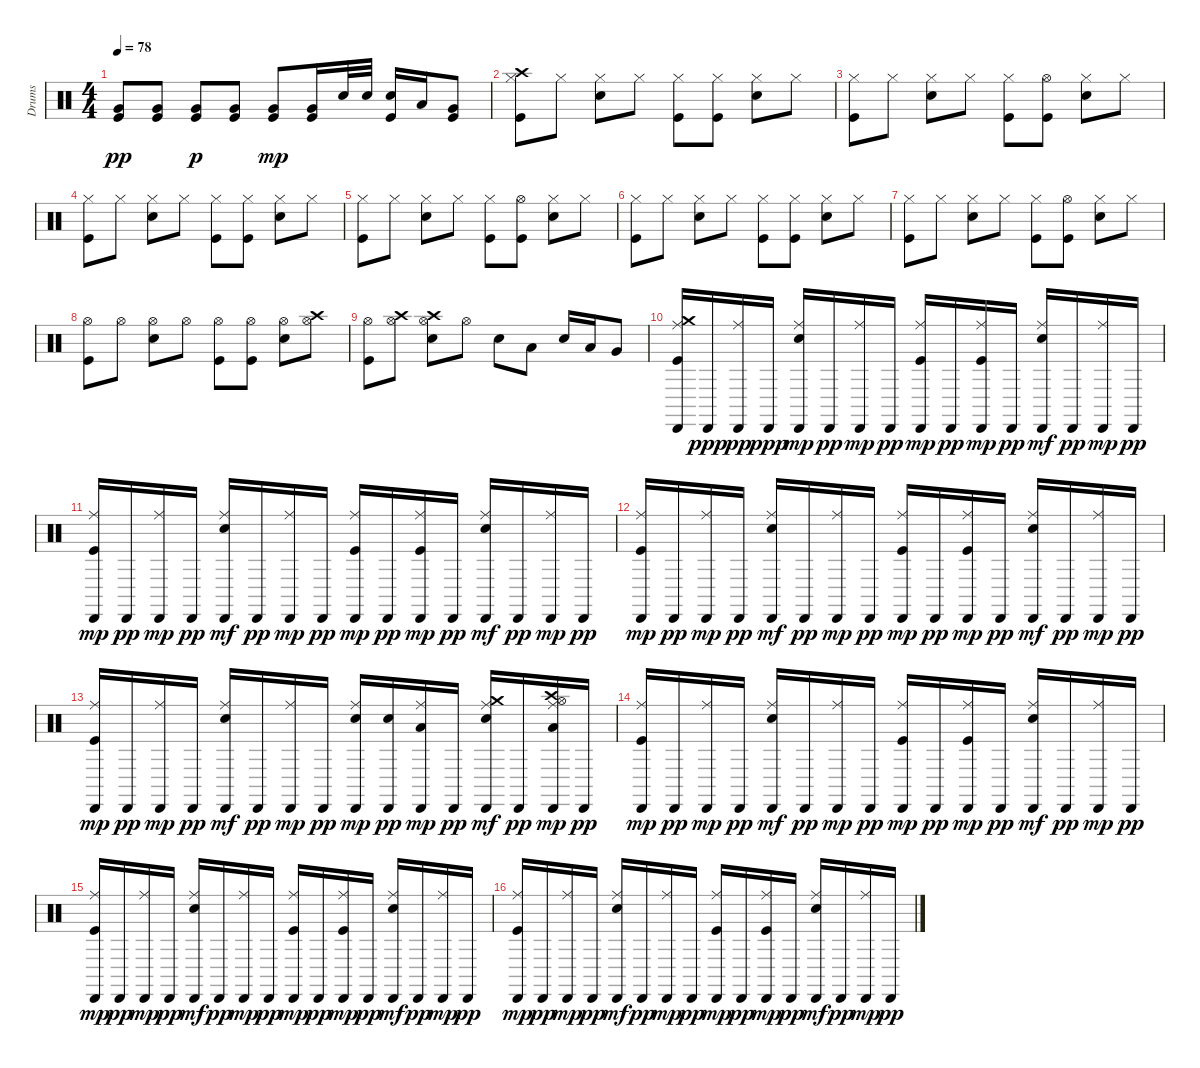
\track ("Drums" "Drums") {instrument percussion}
\staff {score}
\articulation defaults
\ts (4 4)
\tempo 78
\clef neutral
\ks c
("Kick (hit)" "Very Low Tom (hit)").8{dy pp balance 8} ("Kick (hit)" "Very Low Tom (hit)").8{balance 8} ("Kick (hit)" "Very Low Tom (hit)").8{dy p balance 8} ("Kick (hit)" "Very Low Tom (hit)").8{balance 8} ("Kick (hit)" "Very Low Tom (hit)").8{dy mp balance 8} ("Kick (hit)" "Very Low Tom (hit)").16{balance 8} "Snare (hit) 2".32 "Snare (hit) 2".32 ("Kick (hit)" "Snare (hit) 2").16{balance 8} "Low Tom (hit)".16 ("Kick (hit)" "Very Low Tom (hit)").8{balance 8} |
("Kick (hit)" "Hi-Hat (closed)" "Crash high (hit)").8{volume 12 balance 8} "Hi-Hat (closed)".8{volume 16 balance 8} ("Snare (hit) 2" "Hi-Hat (closed)").8 "Hi-Hat (closed)".8 ("Kick (hit)" "Hi-Hat (closed)").8{balance 8} ("Kick (hit)" "Hi-Hat (closed)").8{balance 8} ("Snare (hit) 2" "Hi-Hat (closed)").8 "Hi-Hat (closed)".8 |
("Kick (hit)" "Hi-Hat (closed)").8{balance 8} "Hi-Hat (closed)".8 ("Snare (hit) 2" "Hi-Hat (closed)").8 "Hi-Hat (closed)".8 ("Kick (hit)" "Hi-Hat (closed)").8{balance 8} ("Kick (hit)" "Hi-Hat (open)").8{balance 7} ("Snare (hit) 2" "Hi-Hat (closed)").8{balance 8} "Hi-Hat (closed)".8 |
("Kick (hit)" "Hi-Hat (closed)").8{balance 8} "Hi-Hat (closed)".8 ("Snare (hit) 2" "Hi-Hat (closed)").8 "Hi-Hat (closed)".8 ("Kick (hit)" "Hi-Hat (closed)").8{balance 8} ("Kick (hit)" "Hi-Hat (closed)").8{balance 8} ("Snare (hit) 2" "Hi-Hat (closed)").8 "Hi-Hat (closed)".8 |
("Kick (hit)" "Hi-Hat (closed)").8{balance 8} "Hi-Hat (closed)".8 ("Snare (hit) 2" "Hi-Hat (closed)").8 "Hi-Hat (closed)".8 ("Kick (hit)" "Hi-Hat (closed)").8{balance 8} ("Kick (hit)" "Hi-Hat (open)").8{balance 7} ("Snare (hit) 2" "Hi-Hat (closed)").8{balance 8} "Hi-Hat (closed)".8 |
("Kick (hit)" "Hi-Hat (closed)").8{balance 8} "Hi-Hat (closed)".8 ("Snare (hit) 2" "Hi-Hat (closed)").8 "Hi-Hat (closed)".8 ("Kick (hit)" "Hi-Hat (closed)").8{balance 8} ("Kick (hit)" "Hi-Hat (closed)").8{balance 8} ("Snare (hit) 2" "Hi-Hat (closed)").8 "Hi-Hat (closed)".8 |
("Kick (hit)" "Hi-Hat (closed)").8{balance 8} "Hi-Hat (closed)".8 ("Snare (hit) 2" "Hi-Hat (closed)").8 "Hi-Hat (closed)".8 ("Kick (hit)" "Hi-Hat (closed)").8{balance 8} ("Kick (hit)" "Hi-Hat (open)").8{balance 7} ("Snare (hit) 2" "Hi-Hat (closed)").8{balance 8} "Hi-Hat (closed)".8 |
("Kick (hit)" "Hi-Hat (open)").8{balance 7} "Hi-Hat (open)".8 ("Snare (hit) 2" "Hi-Hat (open)").8{balance 7} "Hi-Hat (open)".8 ("Kick (hit)" "Hi-Hat (open)").8{balance 7} ("Kick (hit)" "Hi-Hat (open)").8{balance 7} ("Snare (hit) 2" "Hi-Hat (open)").8{balance 7} ("Hi-Hat (open)" "Crash high (hit)").8{volume 12 balance 8} |
("Kick (hit)" "Hi-Hat (open)").8{volume 16 balance 7} ("Hi-Hat (open)" "Crash high (hit)").8{volume 12 balance 8} ("Snare (hit) 2" "Hi-Hat (open)" "Crash high (hit)").8{volume 12 balance 8} "Hi-Hat (open)".8{volume 16 balance 7} "Snare (hit) 2".8{balance 8} "Low Tom (hit)".8 "Snare (hit) 2".16 "Low Tom (hit)".16 "Very Low Tom (hit)".8 |
("Kick (hit)" "Crash medium (hit)" "Ride (middle)" "Cabasa (hit)").16{volume 8 balance 8} "Cabasa (hit)".16{dy ppp} ("Ride (middle)" "Cabasa (hit)").16{dy pp volume 8 balance 8} "Cabasa (hit)".16{dy ppp} ("Snare (hit) 2" "Ride (middle)" "Cabasa (hit)").16{dy mp volume 8 balance 8} "Cabasa (hit)".16{dy pp} ("Ride (middle)" "Cabasa (hit)").16{dy mp volume 8 balance 8} "Cabasa (hit)".16{dy pp} ("Kick (hit)" "Ride (middle)" "Cabasa (hit)").16{dy mp volume 8 balance 8} "Cabasa (hit)".16{dy pp} ("Kick (hit)" "Ride (middle)" "Cabasa (hit)").16{dy mp volume 8 balance 8} "Cabasa (hit)".16{dy pp} ("Snare (hit) 2" "Ride (middle)" "Cabasa (hit)").16{dy mf volume 8 balance 8} "Cabasa (hit)".16{dy pp} ("Ride (middle)" "Cabasa (hit)").16{dy mp volume 8 balance 8} "Cabasa (hit)".16{dy pp} |
("Kick (hit)" "Ride (middle)" "Cabasa (hit)").16{dy mp volume 8 balance 8} "Cabasa (hit)".16{dy pp} ("Ride (middle)" "Cabasa (hit)").16{dy mp volume 8 balance 8} "Cabasa (hit)".16{dy pp} ("Snare (hit) 2" "Ride (middle)" "Cabasa (hit)").16{dy mf volume 8 balance 8} "Cabasa (hit)".16{dy pp} ("Ride (middle)" "Cabasa (hit)").16{dy mp volume 8 balance 8} "Cabasa (hit)".16{dy pp} ("Kick (hit)" "Ride (middle)" "Cabasa (hit)").16{dy mp volume 8 balance 8} "Cabasa (hit)".16{dy pp} ("Kick (hit)" "Ride (middle)" "Cabasa (hit)").16{dy mp volume 8 balance 8} "Cabasa (hit)".16{dy pp} ("Snare (hit) 2" "Ride (middle)" "Cabasa (hit)").16{dy mf volume 8 balance 8} "Cabasa (hit)".16{dy pp} ("Ride (middle)" "Cabasa (hit)").16{dy mp volume 8 balance 8} "Cabasa (hit)".16{dy pp} |
("Kick (hit)" "Ride (middle)" "Cabasa (hit)").16{dy mp volume 8 balance 8} "Cabasa (hit)".16{dy pp} ("Ride (middle)" "Cabasa (hit)").16{dy mp volume 8 balance 8} "Cabasa (hit)".16{dy pp} ("Snare (hit) 2" "Ride (middle)" "Cabasa (hit)").16{dy mf volume 8 balance 8} "Cabasa (hit)".16{dy pp} ("Ride (middle)" "Cabasa (hit)").16{dy mp volume 8 balance 8} "Cabasa (hit)".16{dy pp} ("Kick (hit)" "Ride (middle)" "Cabasa (hit)").16{dy mp volume 8 balance 8} "Cabasa (hit)".16{dy pp} ("Kick (hit)" "Ride (middle)" "Cabasa (hit)").16{dy mp volume 8 balance 8} "Cabasa (hit)".16{dy pp} ("Snare (hit) 2" "Ride (middle)" "Cabasa (hit)").16{dy mf volume 8 balance 8} "Cabasa (hit)".16{dy pp} ("Ride (middle)" "Cabasa (hit)").16{dy mp volume 8 balance 8} "Cabasa (hit)".16{dy pp} |
("Kick (hit)" "Ride (middle)" "Cabasa (hit)").16{dy mp volume 8 balance 8} "Cabasa (hit)".16{dy pp} ("Ride (middle)" "Cabasa (hit)").16{dy mp volume 8 balance 8} "Cabasa (hit)".16{dy pp} ("Snare (hit) 2" "Ride (middle)" "Cabasa (hit)").16{dy mf volume 8 balance 8} "Cabasa (hit)".16{dy pp} ("Ride (middle)" "Cabasa (hit)").16{dy mp volume 8 balance 8} "Cabasa (hit)".16{dy pp} ("Snare (hit) 2" "Ride (middle)" "Cabasa (hit)").16{dy mp volume 8 balance 8} ("Snare (hit) 2" "Cabasa (hit)").16{dy pp volume 8} ("Low Tom (hit)" "Ride (middle)" "Cabasa (hit)").16{dy mp volume 8 balance 8} "Cabasa (hit)".16{dy pp} ("Snare (hit) 2" "Crash medium (hit)" "Ride (middle)" "Cabasa (hit)").16{dy mf volume 8 balance 8} "Cabasa (hit)".16{dy pp} ("Low Tom (hit)" "Hi-Hat (open)" "Crash high (hit)" "Ride (middle)" "Cabasa (hit)").16{dy mp volume 8 balance 8} "Cabasa (hit)".16{dy pp} |
("Kick (hit)" "Ride (middle)" "Cabasa (hit)").16{dy mp volume 8 balance 8} "Cabasa (hit)".16{dy pp} ("Ride (middle)" "Cabasa (hit)").16{dy mp volume 8 balance 8} "Cabasa (hit)".16{dy pp} ("Snare (hit) 2" "Ride (middle)" "Cabasa (hit)").16{dy mf volume 8 balance 8} "Cabasa (hit)".16{dy pp} ("Ride (middle)" "Cabasa (hit)").16{dy mp volume 8 balance 8} "Cabasa (hit)".16{dy pp} ("Kick (hit)" "Ride (middle)" "Cabasa (hit)").16{dy mp volume 8 balance 8} "Cabasa (hit)".16{dy pp} ("Kick (hit)" "Ride (middle)" "Cabasa (hit)").16{dy mp volume 8 balance 8} "Cabasa (hit)".16{dy pp} ("Snare (hit) 2" "Ride (middle)" "Cabasa (hit)").16{dy mf volume 8 balance 8} "Cabasa (hit)".16{dy pp} ("Ride (middle)" "Cabasa (hit)").16{dy mp volume 8 balance 8} "Cabasa (hit)".16{dy pp} |
("Kick (hit)" "Ride (middle)" "Cabasa (hit)").16{dy mp volume 8 balance 8} "Cabasa (hit)".16{dy pp} ("Ride (middle)" "Cabasa (hit)").16{dy mp volume 8 balance 8} "Cabasa (hit)".16{dy pp} ("Snare (hit) 2" "Ride (middle)" "Cabasa (hit)").16{dy mf volume 8 balance 8} "Cabasa (hit)".16{dy pp} ("Ride (middle)" "Cabasa (hit)").16{dy mp volume 8 balance 8} "Cabasa (hit)".16{dy pp} ("Kick (hit)" "Ride (middle)" "Cabasa (hit)").16{dy mp volume 8 balance 8} "Cabasa (hit)".16{dy pp} ("Kick (hit)" "Ride (middle)" "Cabasa (hit)").16{dy mp volume 8 balance 8} "Cabasa (hit)".16{dy pp} ("Snare (hit) 2" "Ride (middle)" "Cabasa (hit)").16{dy mf volume 8 balance 8} "Cabasa (hit)".16{dy pp} ("Ride (middle)" "Cabasa (hit)").16{dy mp volume 8 balance 8} "Cabasa (hit)".16{dy pp} |
("Kick (hit)" "Ride (middle)" "Cabasa (hit)").16{dy mp volume 8 balance 8} "Cabasa (hit)".16{dy pp} ("Ride (middle)" "Cabasa (hit)").16{dy mp volume 8 balance 8} "Cabasa (hit)".16{dy pp} ("Snare (hit) 2" "Ride (middle)" "Cabasa (hit)").16{dy mf volume 8 balance 8} "Cabasa (hit)".16{dy pp} ("Ride (middle)" "Cabasa (hit)").16{dy mp volume 8 balance 8} "Cabasa (hit)".16{dy pp} ("Kick (hit)" "Ride (middle)" "Cabasa (hit)").16{dy mp volume 8 balance 8} "Cabasa (hit)".16{dy pp} ("Kick (hit)" "Ride (middle)" "Cabasa (hit)").16{dy mp volume 8 balance 8} "Cabasa (hit)".16{dy pp} ("Snare (hit) 2" "Ride (middle)" "Cabasa (hit)").16{dy mf volume 8 balance 8} "Cabasa (hit)".16{dy pp} ("Ride (middle)" "Cabasa (hit)").16{dy mp volume 8 balance 8} "Cabasa (hit)".16{dy pp}
